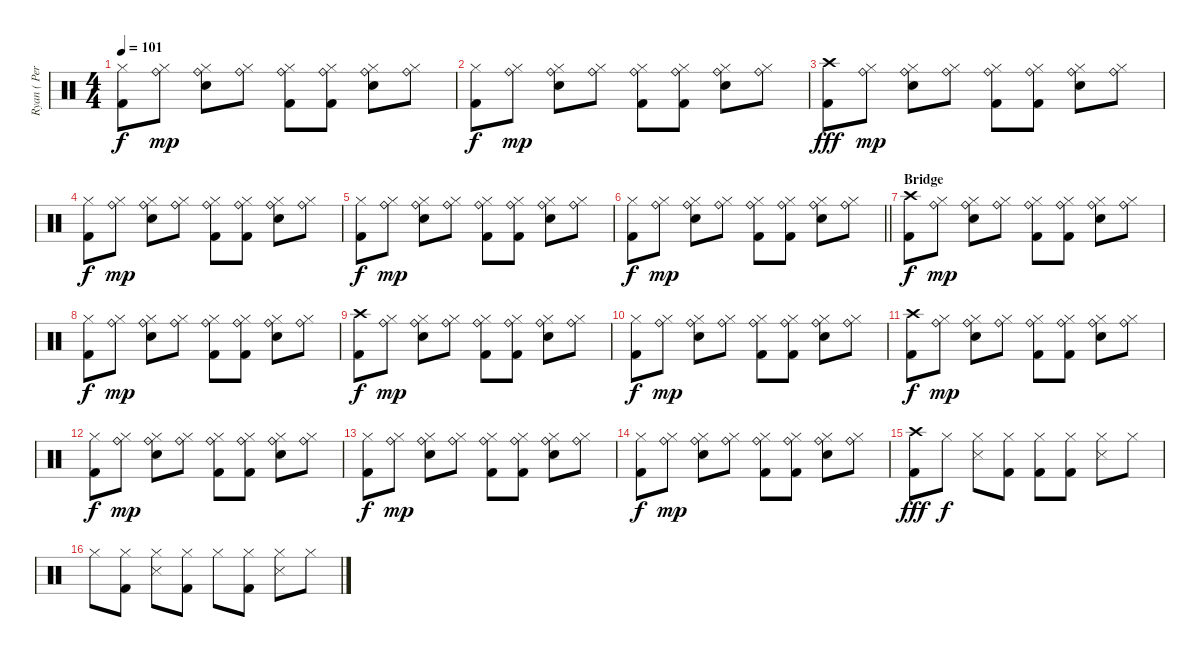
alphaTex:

\track ("Ryan ( Percussion )" "Ryan ( Per") {instrument percussion}
\staff {score}
\articulation defaults
\ts (4 4)
\tempo 101
\clef neutral
\ks c
("Hi-Hat (closed)" "Kick (hit) 2").8{dy f} ("Hi-Hat (closed)" "Ride (bell)").8{dy mp} ("Hi-Hat (closed)" "Snare (hit) 2" "Ride (bell)").8 ("Hi-Hat (closed)" "Ride (bell)").8 ("Hi-Hat (closed)" "Kick (hit) 2" "Ride (bell)").8 ("Hi-Hat (closed)" "Kick (hit) 2" "Ride (bell)").8 ("Hi-Hat (closed)" "Snare (hit) 2" "Ride (bell)").8 ("Hi-Hat (closed)" "Ride (bell)").8 |
("Hi-Hat (closed)" "Kick (hit) 2").8{dy f} ("Hi-Hat (closed)" "Ride (bell)").8{dy mp} ("Hi-Hat (closed)" "Snare (hit) 2" "Ride (bell)").8 ("Hi-Hat (closed)" "Ride (bell)").8 ("Hi-Hat (closed)" "Kick (hit) 2" "Ride (bell)").8 ("Hi-Hat (closed)" "Kick (hit) 2" "Ride (bell)").8 ("Hi-Hat (closed)" "Snare (hit) 2" "Ride (bell)").8 ("Hi-Hat (closed)" "Ride (bell)").8 |
("Crash high (hit)" "Kick (hit) 2").8{dy fff} ("Hi-Hat (closed)" "Ride (bell)").8{dy mp} ("Hi-Hat (closed)" "Snare (hit) 2" "Ride (bell)").8 ("Hi-Hat (closed)" "Ride (bell)").8 ("Hi-Hat (closed)" "Kick (hit) 2" "Ride (bell)").8 ("Hi-Hat (closed)" "Kick (hit) 2" "Ride (bell)").8 ("Hi-Hat (closed)" "Snare (hit) 2" "Ride (bell)").8 ("Hi-Hat (closed)" "Ride (bell)").8 |
("Hi-Hat (closed)" "Kick (hit) 2").8{dy f} ("Hi-Hat (closed)" "Ride (bell)").8{dy mp} ("Hi-Hat (closed)" "Snare (hit) 2" "Ride (bell)").8 ("Hi-Hat (closed)" "Ride (bell)").8 ("Hi-Hat (closed)" "Kick (hit) 2" "Ride (bell)").8 ("Hi-Hat (closed)" "Kick (hit) 2" "Ride (bell)").8 ("Hi-Hat (closed)" "Snare (hit) 2" "Ride (bell)").8 ("Hi-Hat (closed)" "Ride (bell)").8 |
("Hi-Hat (closed)" "Kick (hit) 2").8{dy f} ("Hi-Hat (closed)" "Ride (bell)").8{dy mp} ("Hi-Hat (closed)" "Snare (hit) 2" "Ride (bell)").8 ("Hi-Hat (closed)" "Ride (bell)").8 ("Hi-Hat (closed)" "Kick (hit) 2" "Ride (bell)").8 ("Hi-Hat (closed)" "Kick (hit) 2" "Ride (bell)").8 ("Hi-Hat (closed)" "Snare (hit) 2" "Ride (bell)").8 ("Hi-Hat (closed)" "Ride (bell)").8 |
\barLineRight lightlight
("Hi-Hat (closed)" "Kick (hit) 2").8{dy f} ("Hi-Hat (closed)" "Ride (bell)").8{dy mp} ("Hi-Hat (closed)" "Snare (hit) 2" "Ride (bell)").8 ("Hi-Hat (closed)" "Ride (bell)").8 ("Hi-Hat (closed)" "Kick (hit) 2" "Ride (bell)").8 ("Hi-Hat (closed)" "Kick (hit) 2" "Ride (bell)").8 ("Hi-Hat (closed)" "Snare (hit) 2" "Ride (bell)").8 ("Hi-Hat (closed)" "Ride (bell)").8 |
\section ("" "Bridge")
("Crash high (hit)" "Kick (hit) 2").8{dy f} ("Hi-Hat (closed)" "Ride (bell)").8{dy mp} ("Hi-Hat (closed)" "Snare (hit) 2" "Ride (bell)").8 ("Hi-Hat (closed)" "Ride (bell)").8 ("Hi-Hat (closed)" "Kick (hit) 2" "Ride (bell)").8 ("Hi-Hat (closed)" "Kick (hit) 2" "Ride (bell)").8 ("Hi-Hat (closed)" "Snare (hit) 2" "Ride (bell)").8 ("Hi-Hat (closed)" "Ride (bell)").8 |
("Hi-Hat (closed)" "Kick (hit) 2").8{dy f} ("Hi-Hat (closed)" "Ride (bell)").8{dy mp} ("Hi-Hat (closed)" "Snare (hit) 2" "Ride (bell)").8 ("Hi-Hat (closed)" "Ride (bell)").8 ("Hi-Hat (closed)" "Kick (hit) 2" "Ride (bell)").8 ("Hi-Hat (closed)" "Kick (hit) 2" "Ride (bell)").8 ("Hi-Hat (closed)" "Snare (hit) 2" "Ride (bell)").8 ("Hi-Hat (closed)" "Ride (bell)").8 |
("Crash high (hit)" "Kick (hit) 2").8{dy f} ("Hi-Hat (closed)" "Ride (bell)").8{dy mp} ("Hi-Hat (closed)" "Snare (hit) 2" "Ride (bell)").8 ("Hi-Hat (closed)" "Ride (bell)").8 ("Hi-Hat (closed)" "Kick (hit) 2" "Ride (bell)").8 ("Hi-Hat (closed)" "Kick (hit) 2" "Ride (bell)").8 ("Hi-Hat (closed)" "Snare (hit) 2" "Ride (bell)").8 ("Hi-Hat (closed)" "Ride (bell)").8 |
("Hi-Hat (closed)" "Kick (hit) 2").8{dy f} ("Hi-Hat (closed)" "Ride (bell)").8{dy mp} ("Hi-Hat (closed)" "Snare (hit) 2" "Ride (bell)").8 ("Hi-Hat (closed)" "Ride (bell)").8 ("Hi-Hat (closed)" "Kick (hit) 2" "Ride (bell)").8 ("Hi-Hat (closed)" "Kick (hit) 2" "Ride (bell)").8 ("Hi-Hat (closed)" "Snare (hit) 2" "Ride (bell)").8 ("Hi-Hat (closed)" "Ride (bell)").8 |
("Crash high (hit)" "Kick (hit) 2").8{dy f} ("Hi-Hat (closed)" "Ride (bell)").8{dy mp} ("Hi-Hat (closed)" "Snare (hit) 2" "Ride (bell)").8 ("Hi-Hat (closed)" "Ride (bell)").8 ("Hi-Hat (closed)" "Kick (hit) 2" "Ride (bell)").8 ("Hi-Hat (closed)" "Kick (hit) 2" "Ride (bell)").8 ("Hi-Hat (closed)" "Snare (hit) 2" "Ride (bell)").8 ("Hi-Hat (closed)" "Ride (bell)").8 |
("Hi-Hat (closed)" "Kick (hit) 2").8{dy f} ("Hi-Hat (closed)" "Ride (bell)").8{dy mp} ("Hi-Hat (closed)" "Snare (hit) 2" "Ride (bell)").8 ("Hi-Hat (closed)" "Ride (bell)").8 ("Hi-Hat (closed)" "Kick (hit) 2" "Ride (bell)").8 ("Hi-Hat (closed)" "Kick (hit) 2" "Ride (bell)").8 ("Hi-Hat (closed)" "Snare (hit) 2" "Ride (bell)").8 ("Hi-Hat (closed)" "Ride (bell)").8 |
("Hi-Hat (closed)" "Kick (hit) 2").8{dy f} ("Hi-Hat (closed)" "Ride (bell)").8{dy mp} ("Hi-Hat (closed)" "Snare (hit) 2" "Ride (bell)").8 ("Hi-Hat (closed)" "Ride (bell)").8 ("Hi-Hat (closed)" "Kick (hit) 2" "Ride (bell)").8 ("Hi-Hat (closed)" "Kick (hit) 2" "Ride (bell)").8 ("Hi-Hat (closed)" "Snare (hit) 2" "Ride (bell)").8 ("Hi-Hat (closed)" "Ride (bell)").8 |
("Hi-Hat (closed)" "Kick (hit) 2").8{dy f} ("Hi-Hat (closed)" "Ride (bell)").8{dy mp} ("Hi-Hat (closed)" "Snare (hit) 2" "Ride (bell)").8 ("Hi-Hat (closed)" "Ride (bell)").8 ("Hi-Hat (closed)" "Kick (hit) 2" "Ride (bell)").8 ("Hi-Hat (closed)" "Kick (hit) 2" "Ride (bell)").8 ("Hi-Hat (closed)" "Snare (hit) 2" "Ride (bell)").8 ("Hi-Hat (closed)" "Ride (bell)").8 |
("Crash high (hit)" "Kick (hit) 2").8{dy fff} "Hi-Hat (closed)".8{dy f} ("Hi-Hat (closed)" "Snare (side stick) 3").8 ("Hi-Hat (closed)" "Kick (hit) 2").8 ("Hi-Hat (closed)" "Kick (hit) 2").8 ("Hi-Hat (closed)" "Kick (hit) 2").8 ("Hi-Hat (closed)" "Snare (side stick) 3").8 "Hi-Hat (closed)".8 |
"Hi-Hat (closed)".8 ("Hi-Hat (closed)" "Kick (hit) 2").8 ("Hi-Hat (closed)" "Snare (side stick) 3").8 ("Hi-Hat (closed)" "Kick (hit) 2").8 "Hi-Hat (closed)".8 ("Hi-Hat (closed)" "Kick (hit) 2").8 ("Hi-Hat (closed)" "Snare (side stick) 3").8 "Hi-Hat (closed)".8
